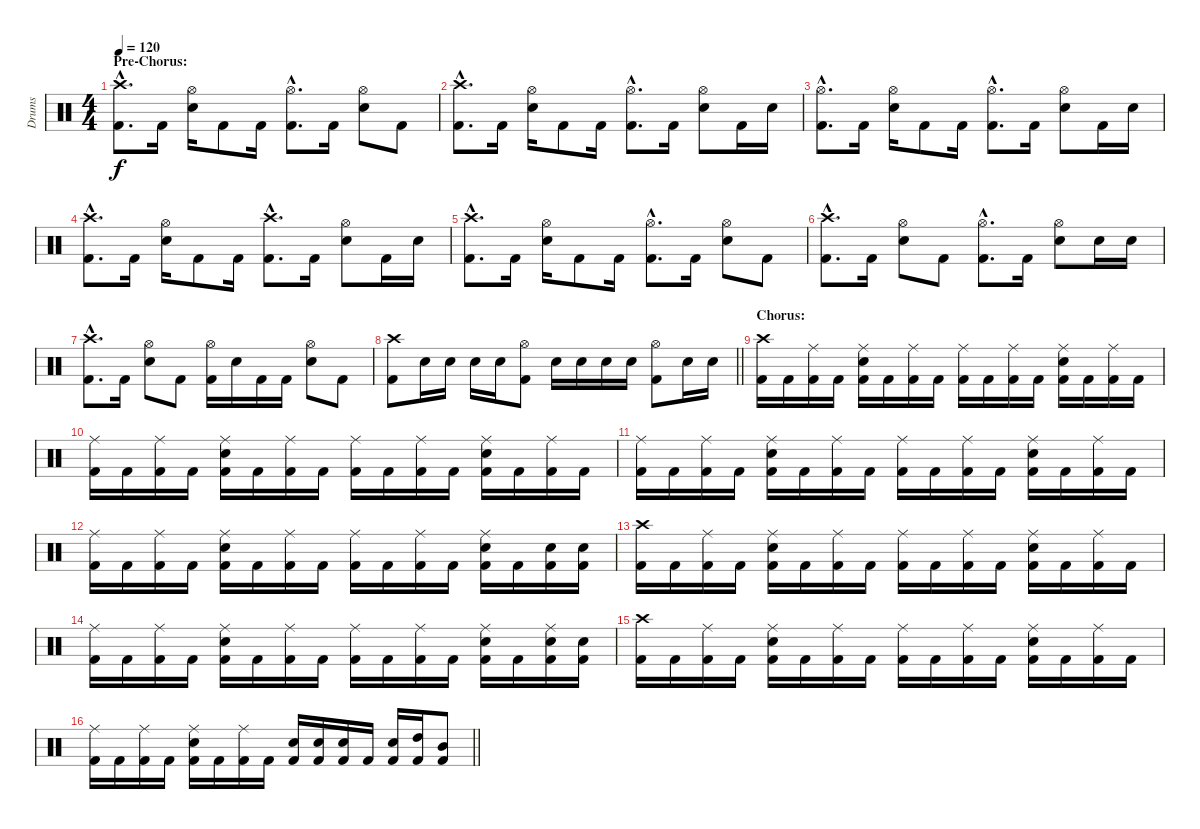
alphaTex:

\track ("Drums" "Drums") {instrument percussion}
\staff {score}
\articulation defaults
\ts (4 4)
\section ("" "Pre-Chorus:")
\tempo 120
\clef neutral
\ks c
("Crash high (hit)"{hac} "Kick (hit) 2"{hac}).8{d dy f} "Kick (hit) 2".16 ("Hi-Hat (open)" "Electric Snare (hit)").16 "Kick (hit) 2".8 "Kick (hit) 2".16 ("Hi-Hat (open)"{hac} "Kick (hit) 2"{hac}).8{d} "Kick (hit) 2".16 ("Hi-Hat (open)" "Electric Snare (hit)").8 "Kick (hit) 2".8 |
("Crash high (hit)"{hac} "Kick (hit) 2"{hac}).8{d} "Kick (hit) 2".16 ("Hi-Hat (open)" "Electric Snare (hit)").16 "Kick (hit) 2".8 "Kick (hit) 2".16 ("Hi-Hat (open)"{hac} "Kick (hit) 2"{hac}).8{d} "Kick (hit) 2".16 ("Hi-Hat (open)" "Electric Snare (hit)").8 "Kick (hit) 2".16 "Electric Snare (hit)".16 |
("Hi-Hat (open)"{hac} "Kick (hit) 2"{hac}).8{d} "Kick (hit) 2".16 ("Hi-Hat (open)" "Electric Snare (hit)").16 "Kick (hit) 2".8 "Kick (hit) 2".16 ("Hi-Hat (open)"{hac} "Kick (hit) 2"{hac}).8{d} "Kick (hit) 2".16 ("Hi-Hat (open)" "Electric Snare (hit)").8 "Kick (hit) 2".16 "Electric Snare (hit)".16 |
("Crash high (hit)"{hac} "Kick (hit) 2"{hac}).8{d} "Kick (hit) 2".16 ("Hi-Hat (open)" "Electric Snare (hit)").16 "Kick (hit) 2".8 "Kick (hit) 2".16 ("Crash high (hit)"{hac} "Kick (hit) 2"{hac}).8{d} "Kick (hit) 2".16 ("Hi-Hat (open)" "Electric Snare (hit)").8 "Kick (hit) 2".16 "Electric Snare (hit)".16 |
("Crash high (hit)"{hac} "Kick (hit) 2"{hac}).8{d} "Kick (hit) 2".16 ("Hi-Hat (open)" "Electric Snare (hit)").16 "Kick (hit) 2".8 "Kick (hit) 2".16 ("Hi-Hat (open)"{hac} "Kick (hit) 2"{hac}).8{d} "Kick (hit) 2".16 ("Hi-Hat (open)" "Electric Snare (hit)").8 "Kick (hit) 2".8 |
("Crash high (hit)"{hac} "Kick (hit) 2"{hac}).8{d} "Kick (hit) 2".16 ("Hi-Hat (open)" "Electric Snare (hit)").8 "Kick (hit) 2".8 ("Hi-Hat (open)"{hac} "Kick (hit) 2"{hac}).8{d} "Kick (hit) 2".16 ("Hi-Hat (open)" "Electric Snare (hit)").8 "Electric Snare (hit)".16 "Electric Snare (hit)".16 |
("Crash high (hit)"{hac} "Kick (hit) 2"{hac}).8{d} "Kick (hit) 2".16 ("Hi-Hat (open)" "Electric Snare (hit)").8 "Kick (hit) 2".8 ("Hi-Hat (open)" "Kick (hit) 2").16 "Electric Snare (hit)".16 "Kick (hit) 2".16 "Kick (hit) 2".16 ("Hi-Hat (open)" "Electric Snare (hit)").8 "Kick (hit) 2".8 |
\barLineRight lightlight
("Crash high (hit)" "Kick (hit) 2").8 "Electric Snare (hit)".16 "Electric Snare (hit)".16 "Electric Snare (hit)".16 "Electric Snare (hit)".16 ("Hi-Hat (open)" "Kick (hit) 2").8 "Electric Snare (hit)".16 "Electric Snare (hit)".16 "Electric Snare (hit)".16 "Electric Snare (hit)".16 ("Hi-Hat (open)" "Kick (hit) 2").8 "Electric Snare (hit)".16 "Electric Snare (hit)".16 |
\section ("" "Chorus:")
("Crash high (hit)" "Kick (hit) 2").16 "Kick (hit) 2".16 ("Ride (middle)" "Kick (hit) 2").16 "Kick (hit) 2".16 ("Ride (middle)" "Electric Snare (hit)" "Kick (hit) 2").16 "Kick (hit) 2".16 ("Ride (middle)" "Kick (hit) 2").16 "Kick (hit) 2".16 ("Ride (middle)" "Kick (hit) 2").16 "Kick (hit) 2".16 ("Ride (middle)" "Kick (hit) 2").16 "Kick (hit) 2".16 ("Ride (middle)" "Electric Snare (hit)" "Kick (hit) 2").16 "Kick (hit) 2".16 ("Ride (middle)" "Kick (hit) 2").16 "Kick (hit) 2".16 |
("Ride (middle)" "Kick (hit) 2").16 "Kick (hit) 2".16 ("Ride (middle)" "Kick (hit) 2").16 "Kick (hit) 2".16 ("Ride (middle)" "Electric Snare (hit)" "Kick (hit) 2").16 "Kick (hit) 2".16 ("Ride (middle)" "Kick (hit) 2").16 "Kick (hit) 2".16 ("Ride (middle)" "Kick (hit) 2").16 "Kick (hit) 2".16 ("Ride (middle)" "Kick (hit) 2").16 "Kick (hit) 2".16 ("Ride (middle)" "Electric Snare (hit)" "Kick (hit) 2").16 "Kick (hit) 2".16 ("Ride (middle)" "Kick (hit) 2").16 "Kick (hit) 2".16 |
("Ride (middle)" "Kick (hit) 2").16 "Kick (hit) 2".16 ("Ride (middle)" "Kick (hit) 2").16 "Kick (hit) 2".16 ("Ride (middle)" "Electric Snare (hit)" "Kick (hit) 2").16 "Kick (hit) 2".16 ("Ride (middle)" "Kick (hit) 2").16 "Kick (hit) 2".16 ("Ride (middle)" "Kick (hit) 2").16 "Kick (hit) 2".16 ("Ride (middle)" "Kick (hit) 2").16 "Kick (hit) 2".16 ("Ride (middle)" "Electric Snare (hit)" "Kick (hit) 2").16 "Kick (hit) 2".16 ("Ride (middle)" "Kick (hit) 2").16 "Kick (hit) 2".16 |
("Ride (middle)" "Kick (hit) 2").16 "Kick (hit) 2".16 ("Ride (middle)" "Kick (hit) 2").16 "Kick (hit) 2".16 ("Ride (middle)" "Electric Snare (hit)" "Kick (hit) 2").16 "Kick (hit) 2".16 ("Ride (middle)" "Kick (hit) 2").16 "Kick (hit) 2".16 ("Ride (middle)" "Kick (hit) 2").16 "Kick (hit) 2".16 ("Ride (middle)" "Kick (hit) 2").16 "Kick (hit) 2".16 ("Ride (middle)" "Electric Snare (hit)" "Kick (hit) 2").16 "Kick (hit) 2".16 ("Electric Snare (hit)" "Kick (hit) 2").16 ("Electric Snare (hit)" "Kick (hit) 2").16 |
("Crash high (hit)" "Kick (hit) 2").16 "Kick (hit) 2".16 ("Ride (middle)" "Kick (hit) 2").16 "Kick (hit) 2".16 ("Ride (middle)" "Electric Snare (hit)" "Kick (hit) 2").16 "Kick (hit) 2".16 ("Ride (middle)" "Kick (hit) 2").16 "Kick (hit) 2".16 ("Ride (middle)" "Kick (hit) 2").16 "Kick (hit) 2".16 ("Ride (middle)" "Kick (hit) 2").16 "Kick (hit) 2".16 ("Ride (middle)" "Electric Snare (hit)" "Kick (hit) 2").16 "Kick (hit) 2".16 ("Ride (middle)" "Kick (hit) 2").16 "Kick (hit) 2".16 |
("Ride (middle)" "Kick (hit) 2").16 "Kick (hit) 2".16 ("Ride (middle)" "Kick (hit) 2").16 "Kick (hit) 2".16 ("Ride (middle)" "Electric Snare (hit)" "Kick (hit) 2").16 "Kick (hit) 2".16 ("Ride (middle)" "Kick (hit) 2").16 "Kick (hit) 2".16 ("Ride (middle)" "Kick (hit) 2").16 "Kick (hit) 2".16 ("Ride (middle)" "Kick (hit) 2").16 "Kick (hit) 2".16 ("Ride (middle)" "Electric Snare (hit)" "Kick (hit) 2").16 "Kick (hit) 2".16 ("Ride (middle)" "Electric Snare (hit)" "Kick (hit) 2").16 ("Electric Snare (hit)" "Kick (hit) 2").16 |
("Crash high (hit)" "Kick (hit) 2").16 "Kick (hit) 2".16 ("Ride (middle)" "Kick (hit) 2").16 "Kick (hit) 2".16 ("Ride (middle)" "Electric Snare (hit)" "Kick (hit) 2").16 "Kick (hit) 2".16 ("Ride (middle)" "Kick (hit) 2").16 "Kick (hit) 2".16 ("Ride (middle)" "Kick (hit) 2").16 "Kick (hit) 2".16 ("Ride (middle)" "Kick (hit) 2").16 "Kick (hit) 2".16 ("Ride (middle)" "Electric Snare (hit)" "Kick (hit) 2").16 "Kick (hit) 2".16 ("Ride (middle)" "Kick (hit) 2").16 "Kick (hit) 2".16 |
\barLineRight lightlight
("Ride (middle)" "Kick (hit) 2").16 "Kick (hit) 2".16 ("Ride (middle)" "Kick (hit) 2").16 "Kick (hit) 2".16 ("Ride (middle)" "Electric Snare (hit)" "Kick (hit) 2").16 "Kick (hit) 2".16 ("Ride (middle)" "Kick (hit) 2").16 "Kick (hit) 2".16 ("Electric Snare (hit)" "Kick (hit) 2").16 ("Electric Snare (hit)" "Kick (hit) 2").16 ("Electric Snare (hit)" "Kick (hit) 2").16 "Kick (hit) 2".16 ("Electric Snare (hit)" "Kick (hit) 2").16 ("High Tom (hit)" "Kick (hit) 2").16 ("Mid Tom (hit)" "Kick (hit) 2").8
